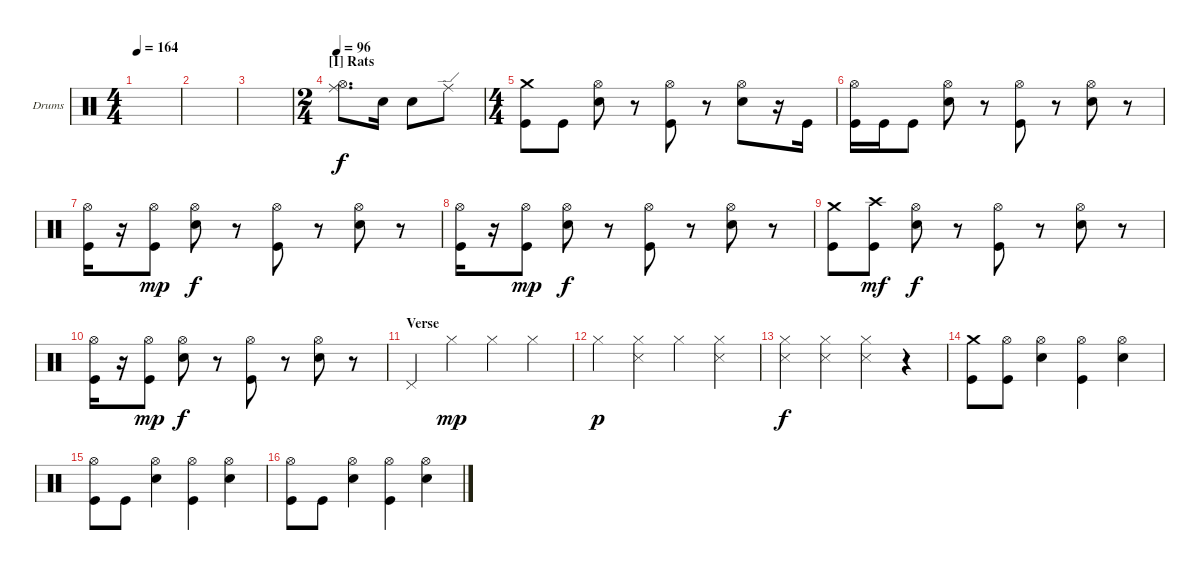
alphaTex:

\defaultSystemsLayout 4
\bracketExtendMode nobrackets
\firstSystemTrackNameOrientation horizontal
\otherSystemsTrackNameOrientation horizontal
\track ("Dave Abbruzzese" "Drums") {solo instrument percussion}
\staff {score}
\articulation defaults
\ts (4 4)
\tempo 164
\clef neutral
\ks c
|
|
|
\ts (2 4)
\section ("I" "Rats")
\tempo 96
("Hi-Hat (open)" "Ride (middle)").8{d} "Snare (hit) 2".16 "Snare (hit) 2".8 "Ride (edge)".8 |
\ts (4 4)
("Crash medium (hit)" "Kick (hit)").8 "Kick (hit)".8 ("Hi-Hat (open)" "Snare (hit) 2").8 r.8 ("Hi-Hat (open)" "Kick (hit)").8 r.8 ("Hi-Hat (open)" "Snare (hit) 2").8 r.16 "Kick (hit)".16 |
("Hi-Hat (open)" "Kick (hit)").16 "Kick (hit)".16 "Kick (hit)".8 ("Hi-Hat (open)" "Snare (hit) 2").8 r.8 ("Hi-Hat (open)" "Kick (hit)").8 r.8 ("Hi-Hat (open)" "Snare (hit) 2").8 r.8 |
("Hi-Hat (open)" "Kick (hit)").16 r.16 ("Hi-Hat (open)" "Kick (hit)").8{dy mp} ("Hi-Hat (open)" "Snare (hit) 2").8{dy f} r.8 ("Hi-Hat (open)" "Kick (hit)").8 r.8 ("Hi-Hat (open)" "Snare (hit) 2").8 r.8 |
("Hi-Hat (open)" "Kick (hit)").16 r.16 ("Hi-Hat (open)" "Kick (hit)").8{dy mp} ("Hi-Hat (open)" "Snare (hit) 2").8{dy f} r.8 ("Hi-Hat (open)" "Kick (hit)").8 r.8 ("Hi-Hat (open)" "Snare (hit) 2").8 r.8 |
("Crash medium (hit)" "Kick (hit)").8 ("Crash high (hit)" "Kick (hit)").8{dy mf} ("Hi-Hat (open)" "Snare (hit) 2").8{dy f} r.8 ("Hi-Hat (open)" "Kick (hit)").8 r.8 ("Hi-Hat (open)" "Snare (hit) 2").8 r.8 |
("Hi-Hat (open)" "Kick (hit)").16 r.16 ("Hi-Hat (open)" "Kick (hit)").8{dy mp} ("Hi-Hat (open)" "Snare (hit) 2").8{dy f} r.8 ("Hi-Hat (open)" "Kick (hit)").8 r.8 ("Hi-Hat (open)" "Snare (hit) 2").8 r.8 |
\section ("" "Verse")
"Pedal Hi-Hat (hit)".4 "Hi-Hat (closed)".4{dy mp} "Hi-Hat (closed)".4 "Hi-Hat (closed)".4 |
"Hi-Hat (closed)".4{dy p} ("Hi-Hat (closed)" "Snare (side stick) 3").4 "Hi-Hat (closed)".4 ("Hi-Hat (closed)" "Snare (side stick) 3").4 |
("Snare (side stick) 3" "Hi-Hat (closed)").4{dy f} ("Snare (side stick) 3" "Hi-Hat (closed)").4 ("Snare (side stick) 3" "Hi-Hat (closed)").4 r.4 |
("Crash medium (hit)" "Kick (hit)").8 ("Hi-Hat (open)" "Kick (hit)").8 ("Hi-Hat (open)" "Snare (hit) 2").4 ("Hi-Hat (open)" "Kick (hit)").4 ("Hi-Hat (open)" "Snare (hit) 2").4 |
("Hi-Hat (open)" "Kick (hit)").8 "Kick (hit)".8 ("Hi-Hat (open)" "Snare (hit) 2").4 ("Hi-Hat (open)" "Kick (hit)").4 ("Hi-Hat (open)" "Snare (hit) 2").4 |
("Hi-Hat (open)" "Kick (hit)").8 "Kick (hit)".8 ("Hi-Hat (open)" "Snare (hit) 2").4 ("Hi-Hat (open)" "Kick (hit)").4 ("Hi-Hat (open)" "Snare (hit) 2").4
